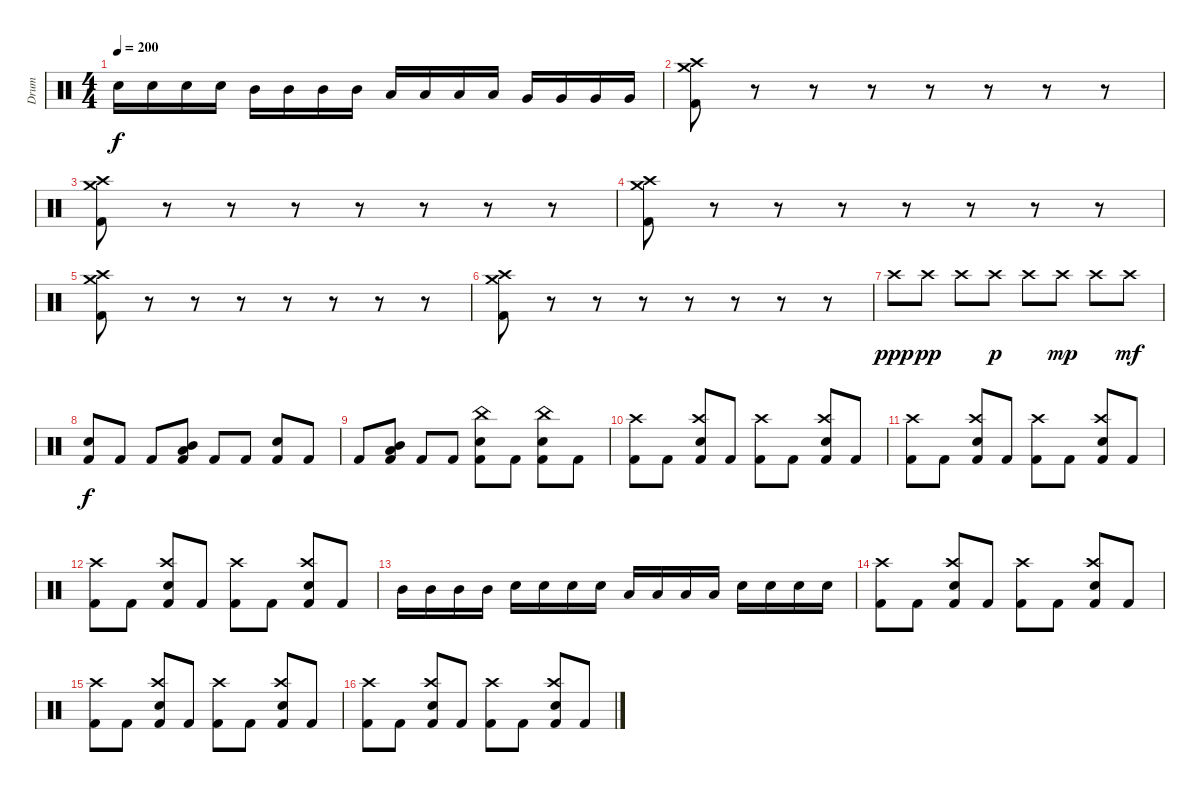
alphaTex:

\track ("Drum" "Drum") {instrument percussion}
\staff {score}
\articulation defaults
\ts (4 4)
\tempo 200
\clef neutral
\ks c "Snare (hit) 2".16{dy f} "Snare (hit) 2".16 "Snare (hit) 2".16 "Snare (hit) 2".16 "Mid Tom (hit)".16 "Mid Tom (hit)".16 "Mid Tom (hit)".16 "Mid Tom (hit)".16 "Low Tom (hit)".16 "Low Tom (hit)".16 "Low Tom (hit)".16 "Low Tom (hit)".16 "Very Low Tom (hit)".16 "Very Low Tom (hit)".16 "Very Low Tom (hit)".16 "Very Low Tom (hit)".16
|
("Crash medium (hit)" "Crash high (hit)" "Kick (hit) 2").8 r.8 r.8 r.8 r.8 r.8 r.8 r.8 |
("Crash medium (hit)" "Crash high (hit)" "Kick (hit) 2").8 r.8 r.8 r.8 r.8 r.8 r.8 r.8 |
("Crash medium (hit)" "Crash high (hit)" "Kick (hit) 2").8 r.8 r.8 r.8 r.8 r.8 r.8 r.8 |
("Crash medium (hit)" "Crash high (hit)" "Kick (hit) 2").8 r.8 r.8 r.8 r.8 r.8 r.8 r.8 |
("Crash medium (hit)" "Crash high (hit)" "Kick (hit) 2").8 r.8 r.8 r.8 r.8 r.8 r.8 r.8 |
"Crash high (hit)".8{dy ppp} "Crash high (hit)".8{dy pp} "Crash high (hit)".8 "Crash high (hit)".8{dy p} "Crash high (hit)".8 "Crash high (hit)".8{dy mp} "Crash high (hit)".8 "Crash high (hit)".8{dy mf} |
("Snare (hit) 2" "Kick (hit) 2").8{dy f} "Kick (hit) 2".8 "Kick (hit) 2".8 ("Low Tom (hit)" "Mid Tom (hit)" "Kick (hit) 2").8 "Kick (hit) 2".8 "Kick (hit) 2".8 ("Snare (hit) 2" "Kick (hit) 2").8 "Kick (hit) 2".8 |
"Kick (hit) 2".8 ("Low Tom (hit)" "Mid Tom (hit)" "Kick (hit) 2").8 "Kick (hit) 2".8 "Kick (hit) 2".8 ("China (hit)" "Snare (hit) 2" "Kick (hit) 2").8 "Kick (hit) 2".8 ("China (hit)" "Snare (hit) 2" "Kick (hit) 2").8 "Kick (hit) 2".8 |
("Crash high (hit)" "Kick (hit) 2").8 "Kick (hit) 2".8 ("Crash high (hit)" "Snare (hit) 2" "Kick (hit) 2").8 "Kick (hit) 2".8 ("Crash high (hit)" "Kick (hit) 2").8 "Kick (hit) 2".8 ("Crash high (hit)" "Snare (hit) 2" "Kick (hit) 2").8 "Kick (hit) 2".8 |
("Crash high (hit)" "Kick (hit) 2").8 "Kick (hit) 2".8 ("Crash high (hit)" "Snare (hit) 2" "Kick (hit) 2").8 "Kick (hit) 2".8 ("Crash high (hit)" "Kick (hit) 2").8 "Kick (hit) 2".8 ("Crash high (hit)" "Snare (hit) 2" "Kick (hit) 2").8 "Kick (hit) 2".8 |
("Crash high (hit)" "Kick (hit) 2").8 "Kick (hit) 2".8 ("Crash high (hit)" "Snare (hit) 2" "Kick (hit) 2").8 "Kick (hit) 2".8 ("Crash high (hit)" "Kick (hit) 2").8 "Kick (hit) 2".8 ("Crash high (hit)" "Snare (hit) 2" "Kick (hit) 2").8 "Kick (hit) 2".8 |
"Mid Tom (hit)".16 "Mid Tom (hit)".16 "Mid Tom (hit)".16 "Mid Tom (hit)".16 "Snare (hit) 2".16 "Snare (hit) 2".16 "Snare (hit) 2".16 "Snare (hit) 2".16 "Low Tom (hit)".16 "Low Tom (hit)".16 "Low Tom (hit)".16 "Low Tom (hit)".16 "Snare (hit) 2".16 "Snare (hit) 2".16 "Snare (hit) 2".16 "Snare (hit) 2".16 |
("Crash high (hit)" "Kick (hit) 2").8 "Kick (hit) 2".8 ("Crash high (hit)" "Snare (hit) 2" "Kick (hit) 2").8 "Kick (hit) 2".8 ("Crash high (hit)" "Kick (hit) 2").8 "Kick (hit) 2".8 ("Crash high (hit)" "Snare (hit) 2" "Kick (hit) 2").8 "Kick (hit) 2".8 |
("Crash high (hit)" "Kick (hit) 2").8 "Kick (hit) 2".8 ("Crash high (hit)" "Snare (hit) 2" "Kick (hit) 2").8 "Kick (hit) 2".8 ("Crash high (hit)" "Kick (hit) 2").8 "Kick (hit) 2".8 ("Crash high (hit)" "Snare (hit) 2" "Kick (hit) 2").8 "Kick (hit) 2".8 |
("Crash high (hit)" "Kick (hit) 2").8 "Kick (hit) 2".8 ("Crash high (hit)" "Snare (hit) 2" "Kick (hit) 2").8 "Kick (hit) 2".8 ("Crash high (hit)" "Kick (hit) 2").8 "Kick (hit) 2".8 ("Crash high (hit)" "Snare (hit) 2" "Kick (hit) 2").8 "Kick (hit) 2".8
